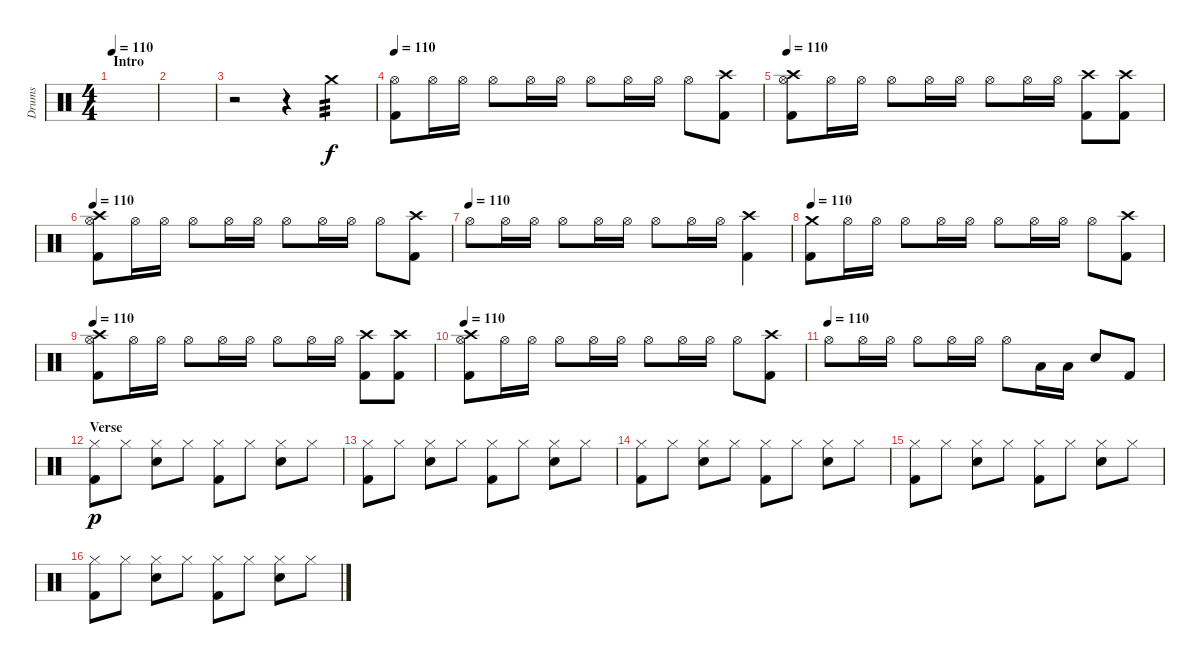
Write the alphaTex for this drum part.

\track ("Drums" "Drums") {instrument percussion}
\staff {score}
\articulation defaults
\ts (4 4)
\section ("" "Intro")
\tempo 110
\tempo 100
\tempo 110
\clef neutral
\ks c
|
|
r.2{volume 0} r.4 "Crash medium (hit)".4{tp 3 volume 13} |
\tempo 110
("Hi-Hat (open)" "Kick (hit) 2").8{volume 13} "Hi-Hat (open)".16 "Hi-Hat (open)".16 "Hi-Hat (open)".8{volume 13} "Hi-Hat (open)".16 "Hi-Hat (open)".16 "Hi-Hat (open)".8{volume 13} "Hi-Hat (open)".16 "Hi-Hat (open)".16 "Hi-Hat (open)".8{volume 13} ("Kick (hit) 2" "Crash high (hit)").8 |
\tempo 110
("Hi-Hat (open)" "Crash high (hit)" "Kick (hit) 2").8{volume 13} "Hi-Hat (open)".16 "Hi-Hat (open)".16 "Hi-Hat (open)".8{volume 13} "Hi-Hat (open)".16 "Hi-Hat (open)".16 "Hi-Hat (open)".8{volume 13} "Hi-Hat (open)".16 "Hi-Hat (open)".16 ("Kick (hit) 2" "Crash high (hit)").8{volume 13} ("Kick (hit) 2" "Crash high (hit)").8 |
\tempo 110
("Hi-Hat (open)" "Kick (hit) 2" "Crash high (hit)").8{volume 13} "Hi-Hat (open)".16 "Hi-Hat (open)".16 "Hi-Hat (open)".8{volume 13} "Hi-Hat (open)".16 "Hi-Hat (open)".16 "Hi-Hat (open)".8{volume 13} "Hi-Hat (open)".16 "Hi-Hat (open)".16 "Hi-Hat (open)".8{volume 13} ("Kick (hit) 2" "Crash high (hit)").8 |
\tempo (110)
"Hi-Hat (open)".8{volume 13} "Hi-Hat (open)".16 "Hi-Hat (open)".16 "Hi-Hat (open)".8{volume 13} "Hi-Hat (open)".16 "Hi-Hat (open)".16 "Hi-Hat (open)".8{volume 13} "Hi-Hat (open)".16 "Hi-Hat (open)".16 ("Kick (hit) 2" "Crash high (hit)").4{volume 13} |
\tempo 110
("Crash medium (hit)" "Kick (hit) 2").8{volume 13} "Hi-Hat (open)".16 "Hi-Hat (open)".16 "Hi-Hat (open)".8{volume 13} "Hi-Hat (open)".16 "Hi-Hat (open)".16 "Hi-Hat (open)".8{volume 13} "Hi-Hat (open)".16 "Hi-Hat (open)".16 "Hi-Hat (open)".8{volume 13} ("Kick (hit) 2" "Crash high (hit)").8 |
\tempo 110
("Hi-Hat (open)" "Crash high (hit)" "Kick (hit) 2").8{volume 13} "Hi-Hat (open)".16 "Hi-Hat (open)".16 "Hi-Hat (open)".8{volume 13} "Hi-Hat (open)".16 "Hi-Hat (open)".16 "Hi-Hat (open)".8{volume 13} "Hi-Hat (open)".16 "Hi-Hat (open)".16 ("Kick (hit) 2" "Crash high (hit)").8{volume 13} ("Kick (hit) 2" "Crash high (hit)").8 |
\tempo 110
("Hi-Hat (open)" "Kick (hit) 2" "Crash high (hit)").8{volume 13} "Hi-Hat (open)".16 "Hi-Hat (open)".16 "Hi-Hat (open)".8{volume 13} "Hi-Hat (open)".16 "Hi-Hat (open)".16 "Hi-Hat (open)".8{volume 13} "Hi-Hat (open)".16 "Hi-Hat (open)".16 "Hi-Hat (open)".8{volume 13} ("Kick (hit) 2" "Crash high (hit)").8 |
\tempo (110)
"Hi-Hat (open)".8{volume 13} "Hi-Hat (open)".16 "Hi-Hat (open)".16 "Hi-Hat (open)".8{volume 13} "Hi-Hat (open)".16 "Hi-Hat (open)".16 "Hi-Hat (open)".8{volume 13} "Low Tom (hit)".16 "Low Tom (hit)".16 "Snare (hit) 2".8{volume 13} "Kick (hit) 2".8 |
\section ("" "Verse")
("Hi-Hat (closed)" "Kick (hit) 2").8{dy p} "Hi-Hat (closed)".8 ("Hi-Hat (closed)" "Snare (hit) 2").8 "Hi-Hat (closed)".8 ("Hi-Hat (closed)" "Kick (hit) 2").8 "Hi-Hat (closed)".8 ("Hi-Hat (closed)" "Snare (hit) 2").8 "Hi-Hat (closed)".8 |
("Hi-Hat (closed)" "Kick (hit) 2").8 "Hi-Hat (closed)".8 ("Hi-Hat (closed)" "Snare (hit) 2").8 "Hi-Hat (closed)".8 ("Hi-Hat (closed)" "Kick (hit) 2").8 "Hi-Hat (closed)".8 ("Hi-Hat (closed)" "Snare (hit) 2").8 "Hi-Hat (closed)".8 |
("Hi-Hat (closed)" "Kick (hit) 2").8 "Hi-Hat (closed)".8 ("Hi-Hat (closed)" "Snare (hit) 2").8 "Hi-Hat (closed)".8 ("Hi-Hat (closed)" "Kick (hit) 2").8 "Hi-Hat (closed)".8 ("Hi-Hat (closed)" "Snare (hit) 2").8 "Hi-Hat (closed)".8 |
("Hi-Hat (closed)" "Kick (hit) 2").8 "Hi-Hat (closed)".8 ("Hi-Hat (closed)" "Snare (hit) 2").8 "Hi-Hat (closed)".8 ("Hi-Hat (closed)" "Kick (hit) 2").8 "Hi-Hat (closed)".8 ("Hi-Hat (closed)" "Snare (hit) 2").8 "Hi-Hat (closed)".8 |
("Hi-Hat (closed)" "Kick (hit) 2").8 "Hi-Hat (closed)".8 ("Hi-Hat (closed)" "Snare (hit) 2").8 "Hi-Hat (closed)".8 ("Hi-Hat (closed)" "Kick (hit) 2").8 "Hi-Hat (closed)".8 ("Hi-Hat (closed)" "Snare (hit) 2").8 "Hi-Hat (closed)".8
